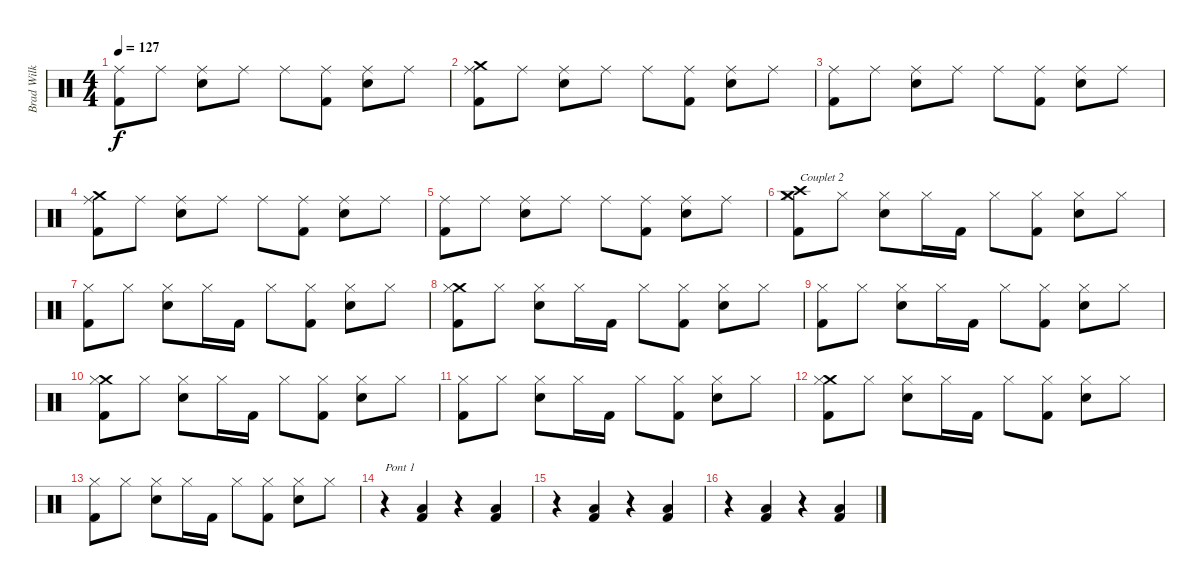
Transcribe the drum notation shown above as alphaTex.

\track ("Brad Wilk" "Brad Wilk") {instrument percussion}
\staff {score}
\articulation defaults
\ts (4 4)
\tempo 127
\clef neutral
\ks c
("Ride (middle)" "Kick (hit) 2").8{dy f} "Ride (middle)".8 ("Electric Snare (hit)" "Ride (middle)").8 "Ride (middle)".8 "Ride (middle)".8 ("Ride (middle)" "Kick (hit) 2").8 ("Electric Snare (hit)" "Ride (middle)").8 "Ride (middle)".8 |
("Crash medium (hit)" "Ride (middle)" "Kick (hit) 2").8 "Ride (middle)".8 ("Electric Snare (hit)" "Ride (middle)").8 "Ride (middle)".8 "Ride (middle)".8 ("Ride (middle)" "Kick (hit) 2").8 ("Electric Snare (hit)" "Ride (middle)").8 "Ride (middle)".8 |
("Ride (middle)" "Kick (hit) 2").8 "Ride (middle)".8 ("Electric Snare (hit)" "Ride (middle)").8 "Ride (middle)".8 "Ride (middle)".8 ("Ride (middle)" "Kick (hit) 2").8 ("Electric Snare (hit)" "Ride (middle)").8 "Ride (middle)".8 |
("Crash medium (hit)" "Ride (middle)" "Kick (hit) 2").8 "Ride (middle)".8 ("Electric Snare (hit)" "Ride (middle)").8 "Ride (middle)".8 "Ride (middle)".8 ("Ride (middle)" "Kick (hit) 2").8 ("Electric Snare (hit)" "Ride (middle)").8 "Ride (middle)".8 |
("Ride (middle)" "Kick (hit) 2").8 "Ride (middle)".8 ("Electric Snare (hit)" "Ride (middle)").8 "Ride (middle)".8 "Ride (middle)".8 ("Ride (middle)" "Kick (hit) 2").8 ("Electric Snare (hit)" "Ride (middle)").8 "Ride (middle)".8 |
("Crash medium (hit)" "Crash high (hit)" "Hi-Hat (closed)" "Kick (hit) 2").8{txt "Couplet 2"} "Hi-Hat (closed)".8 ("Electric Snare (hit)" "Hi-Hat (closed)").8 "Hi-Hat (closed)".16 "Kick (hit) 2".16 "Hi-Hat (closed)".8 ("Hi-Hat (closed)" "Kick (hit) 2").8 ("Electric Snare (hit)" "Hi-Hat (closed)").8 "Hi-Hat (closed)".8 |
("Hi-Hat (closed)" "Kick (hit) 2").8 "Hi-Hat (closed)".8 ("Electric Snare (hit)" "Hi-Hat (closed)").8 "Hi-Hat (closed)".16 "Kick (hit) 2".16 "Hi-Hat (closed)".8 ("Hi-Hat (closed)" "Kick (hit) 2").8 ("Electric Snare (hit)" "Hi-Hat (closed)").8 "Hi-Hat (closed)".8 |
("Crash medium (hit)" "Hi-Hat (closed)" "Kick (hit) 2").8 "Hi-Hat (closed)".8 ("Electric Snare (hit)" "Hi-Hat (closed)").8 "Hi-Hat (closed)".16 "Kick (hit) 2".16 "Hi-Hat (closed)".8 ("Hi-Hat (closed)" "Kick (hit) 2").8 ("Electric Snare (hit)" "Hi-Hat (closed)").8 "Hi-Hat (closed)".8 |
("Hi-Hat (closed)" "Kick (hit) 2").8 "Hi-Hat (closed)".8 ("Electric Snare (hit)" "Hi-Hat (closed)").8 "Hi-Hat (closed)".16 "Kick (hit) 2".16 "Hi-Hat (closed)".8 ("Hi-Hat (closed)" "Kick (hit) 2").8 ("Electric Snare (hit)" "Hi-Hat (closed)").8 "Hi-Hat (closed)".8 |
("Crash medium (hit)" "Hi-Hat (closed)" "Kick (hit) 2").8 "Hi-Hat (closed)".8 ("Electric Snare (hit)" "Hi-Hat (closed)").8 "Hi-Hat (closed)".16 "Kick (hit) 2".16 "Hi-Hat (closed)".8 ("Hi-Hat (closed)" "Kick (hit) 2").8 ("Electric Snare (hit)" "Hi-Hat (closed)").8 "Hi-Hat (closed)".8 |
("Hi-Hat (closed)" "Kick (hit) 2").8 "Hi-Hat (closed)".8 ("Electric Snare (hit)" "Hi-Hat (closed)").8 "Hi-Hat (closed)".16 "Kick (hit) 2".16 "Hi-Hat (closed)".8 ("Hi-Hat (closed)" "Kick (hit) 2").8 ("Electric Snare (hit)" "Hi-Hat (closed)").8 "Hi-Hat (closed)".8 |
("Crash medium (hit)" "Hi-Hat (closed)" "Kick (hit) 2").8 "Hi-Hat (closed)".8 ("Electric Snare (hit)" "Hi-Hat (closed)").8 "Hi-Hat (closed)".16 "Kick (hit) 2".16 "Hi-Hat (closed)".8 ("Hi-Hat (closed)" "Kick (hit) 2").8 ("Electric Snare (hit)" "Hi-Hat (closed)").8 "Hi-Hat (closed)".8 |
("Hi-Hat (closed)" "Kick (hit) 2").8 "Hi-Hat (closed)".8 ("Electric Snare (hit)" "Hi-Hat (closed)").8 "Hi-Hat (closed)".16 "Kick (hit) 2".16 "Hi-Hat (closed)".8 ("Hi-Hat (closed)" "Kick (hit) 2").8 ("Electric Snare (hit)" "Hi-Hat (closed)").8 "Hi-Hat (closed)".8 |
r.4{txt "Pont 1"} ("Low Floor Tom (hit)" "Kick (hit) 2").4 r.4 ("Low Floor Tom (hit)" "Kick (hit) 2").4 |
r.4 ("Low Floor Tom (hit)" "Kick (hit) 2").4 r.4 ("Low Floor Tom (hit)" "Kick (hit) 2").4 |
r.4 ("Low Floor Tom (hit)" "Kick (hit) 2").4 r.4 ("Low Floor Tom (hit)" "Kick (hit) 2").4
